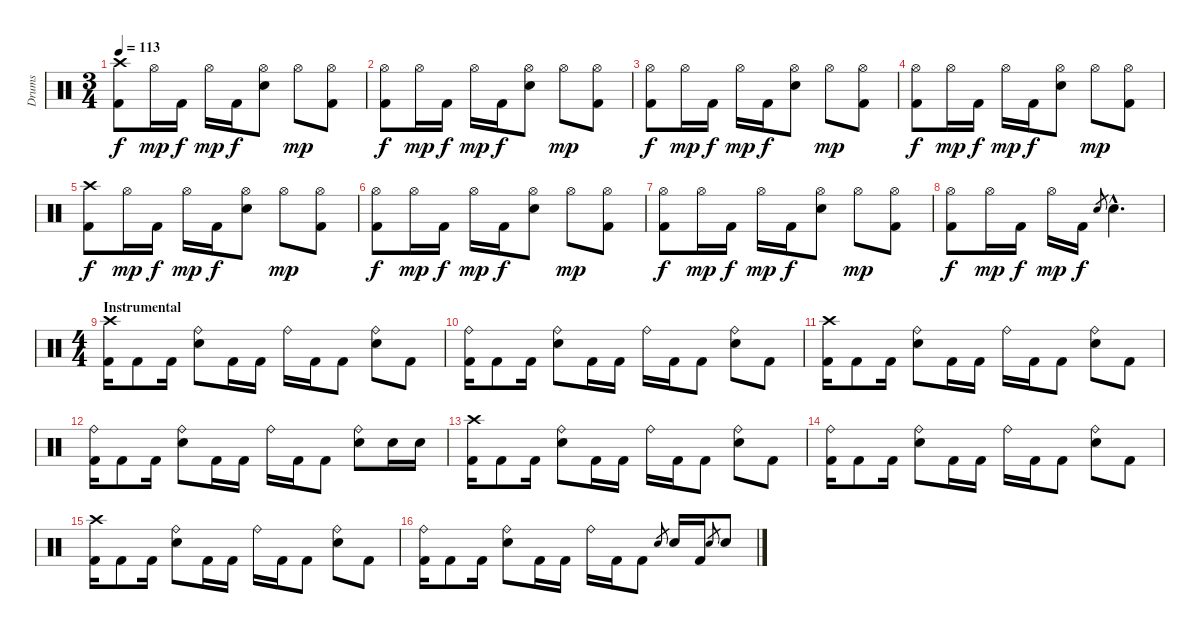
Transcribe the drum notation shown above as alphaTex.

\track ("Drums" "Drums") {instrument percussion}
\staff {score}
\articulation defaults
\ts (3 4)
\tempo 113
\clef neutral
\ks c
("Crash high (hit)" "Kick (hit) 2").8{dy f} "Hi-Hat (open)".16{dy mp} "Kick (hit) 2".16{dy f} "Hi-Hat (open)".16{dy mp} "Kick (hit) 2".16{dy f} ("Hi-Hat (open)" "Snare (hit) 2").8 "Hi-Hat (open)".8{dy mp} ("Hi-Hat (open)" "Kick (hit) 2").8 |
("Hi-Hat (open)" "Kick (hit) 2").8{dy f} "Hi-Hat (open)".16{dy mp} "Kick (hit) 2".16{dy f} "Hi-Hat (open)".16{dy mp} "Kick (hit) 2".16{dy f} ("Hi-Hat (open)" "Snare (hit) 2").8 "Hi-Hat (open)".8{dy mp} ("Hi-Hat (open)" "Kick (hit) 2").8 |
("Hi-Hat (open)" "Kick (hit) 2").8{dy f} "Hi-Hat (open)".16{dy mp} "Kick (hit) 2".16{dy f} "Hi-Hat (open)".16{dy mp} "Kick (hit) 2".16{dy f} ("Hi-Hat (open)" "Snare (hit) 2").8 "Hi-Hat (open)".8{dy mp} ("Hi-Hat (open)" "Kick (hit) 2").8 |
("Hi-Hat (open)" "Kick (hit) 2").8{dy f} "Hi-Hat (open)".16{dy mp} "Kick (hit) 2".16{dy f} "Hi-Hat (open)".16{dy mp} "Kick (hit) 2".16{dy f} ("Hi-Hat (open)" "Snare (hit) 2").8 "Hi-Hat (open)".8{dy mp} ("Hi-Hat (open)" "Kick (hit) 2").8 |
("Crash high (hit)" "Kick (hit) 2").8{dy f} "Hi-Hat (open)".16{dy mp} "Kick (hit) 2".16{dy f} "Hi-Hat (open)".16{dy mp} "Kick (hit) 2".16{dy f} ("Hi-Hat (open)" "Snare (hit) 2").8 "Hi-Hat (open)".8{dy mp} ("Hi-Hat (open)" "Kick (hit) 2").8 |
("Hi-Hat (open)" "Kick (hit) 2").8{dy f} "Hi-Hat (open)".16{dy mp} "Kick (hit) 2".16{dy f} "Hi-Hat (open)".16{dy mp} "Kick (hit) 2".16{dy f} ("Hi-Hat (open)" "Snare (hit) 2").8 "Hi-Hat (open)".8{dy mp} ("Hi-Hat (open)" "Kick (hit) 2").8 |
("Hi-Hat (open)" "Kick (hit) 2").8{dy f} "Hi-Hat (open)".16{dy mp} "Kick (hit) 2".16{dy f} "Hi-Hat (open)".16{dy mp} "Kick (hit) 2".16{dy f} ("Hi-Hat (open)" "Snare (hit) 2").8 "Hi-Hat (open)".8{dy mp} ("Hi-Hat (open)" "Kick (hit) 2").8 |
("Hi-Hat (open)" "Kick (hit) 2").8{dy f} "Hi-Hat (open)".16{dy mp} "Kick (hit) 2".16{dy f} "Hi-Hat (open)".16{dy mp} "Kick (hit) 2".16{dy f} "Snare (hit) 2".8{gr} "Snare (hit) 2"{hac}.4{d} |
\ts (4 4)
\section ("" "Instrumental")
("Crash high (hit)" "Kick (hit) 2").16 "Kick (hit) 2".8 "Kick (hit) 2".16 ("Ride (bell)" "Snare (hit) 2").8 "Kick (hit) 2".16 "Kick (hit) 2".16 "Ride (bell)".16 "Kick (hit) 2".16 "Kick (hit) 2".8 ("Ride (bell)" "Snare (hit) 2").8 "Kick (hit) 2".8 |
("Ride (bell)" "Kick (hit) 2").16 "Kick (hit) 2".8 "Kick (hit) 2".16 ("Ride (bell)" "Snare (hit) 2").8 "Kick (hit) 2".16 "Kick (hit) 2".16 "Ride (bell)".16 "Kick (hit) 2".16 "Kick (hit) 2".8 ("Ride (bell)" "Snare (hit) 2").8 "Kick (hit) 2".8 |
("Crash high (hit)" "Kick (hit) 2").16 "Kick (hit) 2".8 "Kick (hit) 2".16 ("Ride (bell)" "Snare (hit) 2").8 "Kick (hit) 2".16 "Kick (hit) 2".16 "Ride (bell)".16 "Kick (hit) 2".16 "Kick (hit) 2".8 ("Ride (bell)" "Snare (hit) 2").8 "Kick (hit) 2".8 |
("Ride (bell)" "Kick (hit) 2").16 "Kick (hit) 2".8 "Kick (hit) 2".16 ("Ride (bell)" "Snare (hit) 2").8 "Kick (hit) 2".16 "Kick (hit) 2".16 "Ride (bell)".16 "Kick (hit) 2".16 "Kick (hit) 2".8 ("Ride (bell)" "Snare (hit) 2").8 "Snare (hit) 2".16 "Snare (hit) 2".16 |
("Crash high (hit)" "Kick (hit) 2").16 "Kick (hit) 2".8 "Kick (hit) 2".16 ("Ride (bell)" "Snare (hit) 2").8 "Kick (hit) 2".16 "Kick (hit) 2".16 "Ride (bell)".16 "Kick (hit) 2".16 "Kick (hit) 2".8 ("Ride (bell)" "Snare (hit) 2").8 "Kick (hit) 2".8 |
("Ride (bell)" "Kick (hit) 2").16 "Kick (hit) 2".8 "Kick (hit) 2".16 ("Ride (bell)" "Snare (hit) 2").8 "Kick (hit) 2".16 "Kick (hit) 2".16 "Ride (bell)".16 "Kick (hit) 2".16 "Kick (hit) 2".8 ("Ride (bell)" "Snare (hit) 2").8 "Kick (hit) 2".8 |
("Crash high (hit)" "Kick (hit) 2").16 "Kick (hit) 2".8 "Kick (hit) 2".16 ("Ride (bell)" "Snare (hit) 2").8 "Kick (hit) 2".16 "Kick (hit) 2".16 "Ride (bell)".16 "Kick (hit) 2".16 "Kick (hit) 2".8 ("Ride (bell)" "Snare (hit) 2").8 "Kick (hit) 2".8 |
("Ride (bell)" "Kick (hit) 2").16 "Kick (hit) 2".8 "Kick (hit) 2".16 ("Ride (bell)" "Snare (hit) 2").8 "Kick (hit) 2".16 "Kick (hit) 2".16 "Ride (bell)".16 "Kick (hit) 2".16 "Kick (hit) 2".8 "Snare (hit) 2".8{gr} "Snare (hit) 2".16 "Kick (hit) 2".16 "Snare (hit) 2".8{gr} "Snare (hit) 2".8
